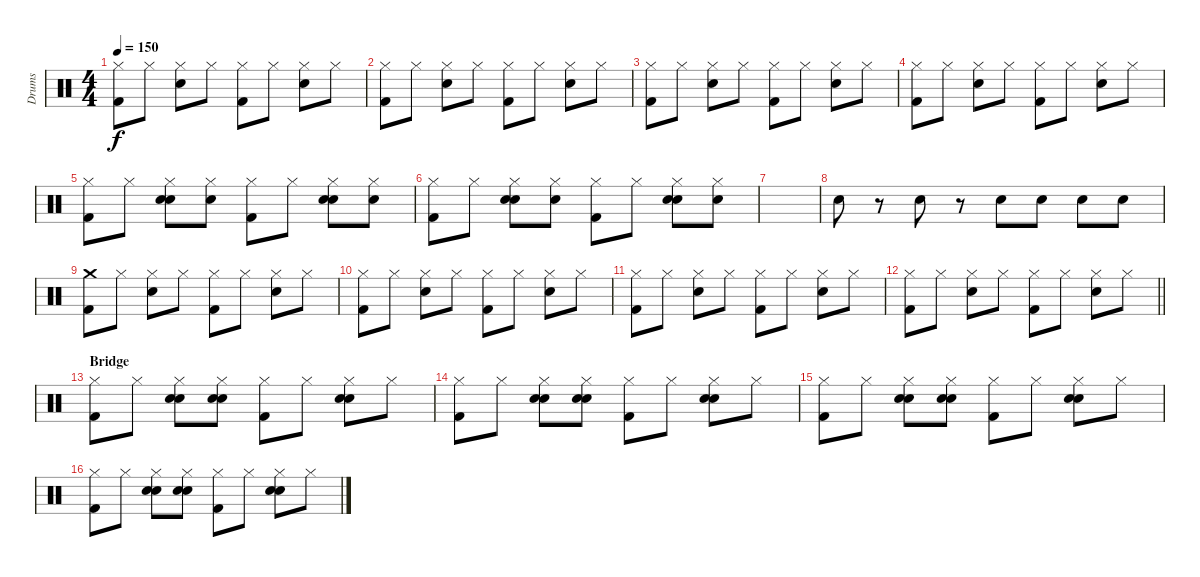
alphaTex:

\track ("Drums" "Drums") {instrument percussion}
\staff {score}
\articulation defaults
\ts (4 4)
\tempo 150
\clef neutral
\ks c
("Hi-Hat (closed)" "Kick (hit) 2").8{dy f} "Hi-Hat (closed)".8 ("Hi-Hat (closed)" "Snare (hit) 2").8 "Hi-Hat (closed)".8 ("Hi-Hat (closed)" "Kick (hit) 2").8 "Hi-Hat (closed)".8 ("Hi-Hat (closed)" "Snare (hit) 2").8 "Hi-Hat (closed)".8 |
("Hi-Hat (closed)" "Kick (hit) 2").8 "Hi-Hat (closed)".8 ("Hi-Hat (closed)" "Snare (hit) 2").8 "Hi-Hat (closed)".8 ("Hi-Hat (closed)" "Kick (hit) 2").8 "Hi-Hat (closed)".8 ("Hi-Hat (closed)" "Snare (hit) 2").8 "Hi-Hat (closed)".8 |
("Hi-Hat (closed)" "Kick (hit) 2").8 "Hi-Hat (closed)".8 ("Hi-Hat (closed)" "Snare (hit) 2").8 "Hi-Hat (closed)".8 ("Hi-Hat (closed)" "Kick (hit) 2").8 "Hi-Hat (closed)".8 ("Hi-Hat (closed)" "Snare (hit) 2").8 "Hi-Hat (closed)".8 |
("Hi-Hat (closed)" "Kick (hit) 2").8 "Hi-Hat (closed)".8 ("Hi-Hat (closed)" "Snare (hit) 2").8 "Hi-Hat (closed)".8 ("Hi-Hat (closed)" "Kick (hit) 2").8 "Hi-Hat (closed)".8 ("Hi-Hat (closed)" "Snare (hit) 2").8 "Hi-Hat (closed)".8 |
("Hi-Hat (closed)" "Kick (hit) 2").8 "Hi-Hat (closed)".8 ("Hi-Hat (closed)" "Hand Clap (hit)" "Snare (hit) 2").8 ("Hi-Hat (closed)" "Hand Clap (hit)").8 ("Hi-Hat (closed)" "Kick (hit) 2").8 "Hi-Hat (closed)".8 ("Hi-Hat (closed)" "Hand Clap (hit)" "Snare (hit) 2").8 ("Hi-Hat (closed)" "Hand Clap (hit)").8 |
("Hi-Hat (closed)" "Kick (hit) 2").8 "Hi-Hat (closed)".8 ("Hi-Hat (closed)" "Hand Clap (hit)" "Snare (hit) 2").8 ("Hi-Hat (closed)" "Hand Clap (hit)").8 ("Hi-Hat (closed)" "Kick (hit) 2").8 "Hi-Hat (closed)".8 ("Hi-Hat (closed)" "Hand Clap (hit)" "Snare (hit) 2").8 ("Hi-Hat (closed)" "Hand Clap (hit)").8 |
|
"Snare (hit) 2".8 r.8 "Snare (hit) 2".8 r.8 "Snare (hit) 2".8 "Snare (hit) 2".8 "Snare (hit) 2".8 "Snare (hit) 2".8 |
("Crash medium (hit)" "Kick (hit) 2").8 "Hi-Hat (closed)".8 ("Hi-Hat (closed)" "Snare (hit) 2").8 "Hi-Hat (closed)".8 ("Hi-Hat (closed)" "Kick (hit) 2").8 "Hi-Hat (closed)".8 ("Hi-Hat (closed)" "Snare (hit) 2").8 "Hi-Hat (closed)".8 |
("Hi-Hat (closed)" "Kick (hit) 2").8 "Hi-Hat (closed)".8 ("Hi-Hat (closed)" "Snare (hit) 2").8 "Hi-Hat (closed)".8 ("Hi-Hat (closed)" "Kick (hit) 2").8 "Hi-Hat (closed)".8 ("Hi-Hat (closed)" "Snare (hit) 2").8 "Hi-Hat (closed)".8 |
("Hi-Hat (closed)" "Kick (hit) 2").8 "Hi-Hat (closed)".8 ("Hi-Hat (closed)" "Snare (hit) 2").8 "Hi-Hat (closed)".8 ("Hi-Hat (closed)" "Kick (hit) 2").8 "Hi-Hat (closed)".8 ("Hi-Hat (closed)" "Snare (hit) 2").8 "Hi-Hat (closed)".8 |
\barLineRight lightlight
("Hi-Hat (closed)" "Kick (hit) 2").8 "Hi-Hat (closed)".8 ("Hi-Hat (closed)" "Snare (hit) 2").8 "Hi-Hat (closed)".8 ("Hi-Hat (closed)" "Kick (hit) 2").8 "Hi-Hat (closed)".8 ("Hi-Hat (closed)" "Snare (hit) 2").8 "Hi-Hat (closed)".8 |
\section ("" "Bridge")
("Hi-Hat (closed)" "Kick (hit) 2").8 "Hi-Hat (closed)".8 ("Hi-Hat (closed)" "Hand Clap (hit)" "Snare (hit) 2").8 ("Hi-Hat (closed)" "Hand Clap (hit)" "Snare (hit) 2").8 ("Hi-Hat (closed)" "Kick (hit) 2").8 "Hi-Hat (closed)".8 ("Hi-Hat (closed)" "Hand Clap (hit)" "Snare (hit) 2").8 "Hi-Hat (closed)".8 |
("Hi-Hat (closed)" "Kick (hit) 2").8 "Hi-Hat (closed)".8 ("Hi-Hat (closed)" "Hand Clap (hit)" "Snare (hit) 2").8 ("Hi-Hat (closed)" "Hand Clap (hit)" "Snare (hit) 2").8 ("Hi-Hat (closed)" "Kick (hit) 2").8 "Hi-Hat (closed)".8 ("Hi-Hat (closed)" "Hand Clap (hit)" "Snare (hit) 2").8 "Hi-Hat (closed)".8 |
("Hi-Hat (closed)" "Kick (hit) 2").8 "Hi-Hat (closed)".8 ("Hi-Hat (closed)" "Hand Clap (hit)" "Snare (hit) 2").8 ("Hi-Hat (closed)" "Hand Clap (hit)" "Snare (hit) 2").8 ("Hi-Hat (closed)" "Kick (hit) 2").8 "Hi-Hat (closed)".8 ("Hi-Hat (closed)" "Hand Clap (hit)" "Snare (hit) 2").8 "Hi-Hat (closed)".8 |
("Hi-Hat (closed)" "Kick (hit) 2").8 "Hi-Hat (closed)".8 ("Hi-Hat (closed)" "Hand Clap (hit)" "Snare (hit) 2").8 ("Hi-Hat (closed)" "Hand Clap (hit)" "Snare (hit) 2").8 ("Hi-Hat (closed)" "Kick (hit) 2").8 "Hi-Hat (closed)".8 ("Hi-Hat (closed)" "Hand Clap (hit)" "Snare (hit) 2").8 "Hi-Hat (closed)".8
